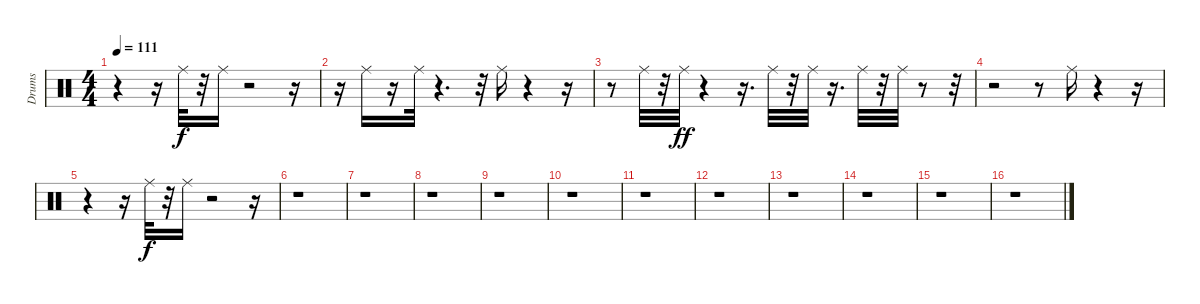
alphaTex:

\track ("Drums" "Drums") {instrument percussion}
\staff {score}
\articulation defaults
\ts (4 4)
\tempo 111
\clef neutral
\ks c
r.4{dy ff} r.16 "Ride (middle)".32{dy f} r.32 "Ride (middle)".16 r.2 r.16 |
r.16 "Ride (middle)".16 r.16 "Ride (middle)".32 r.4{d} r.32 "Ride (middle)".16 r.4 r.16 |
r.8 "Ride (middle)".32 r.32 "Ride (middle)".32{dy ff} r.4 r.16{d} "Ride (middle)".32 r.32 "Ride (middle)".32 r.16{d} "Ride (middle)".32 r.32 "Ride (middle)".32 r.8 r.32 |
r.2 r.8 "Ride (middle)".16 r.4 r.16 |
r.4 r.16 "Ride (middle)".32{dy f} r.32 "Ride (middle)".16 r.2 r.16 |
r.1 |
r.1 |
r.1 |
r.1 |
r.1 |
r.1 |
r.1 |
r.1 |
r.1 |
r.1 |
r.1
